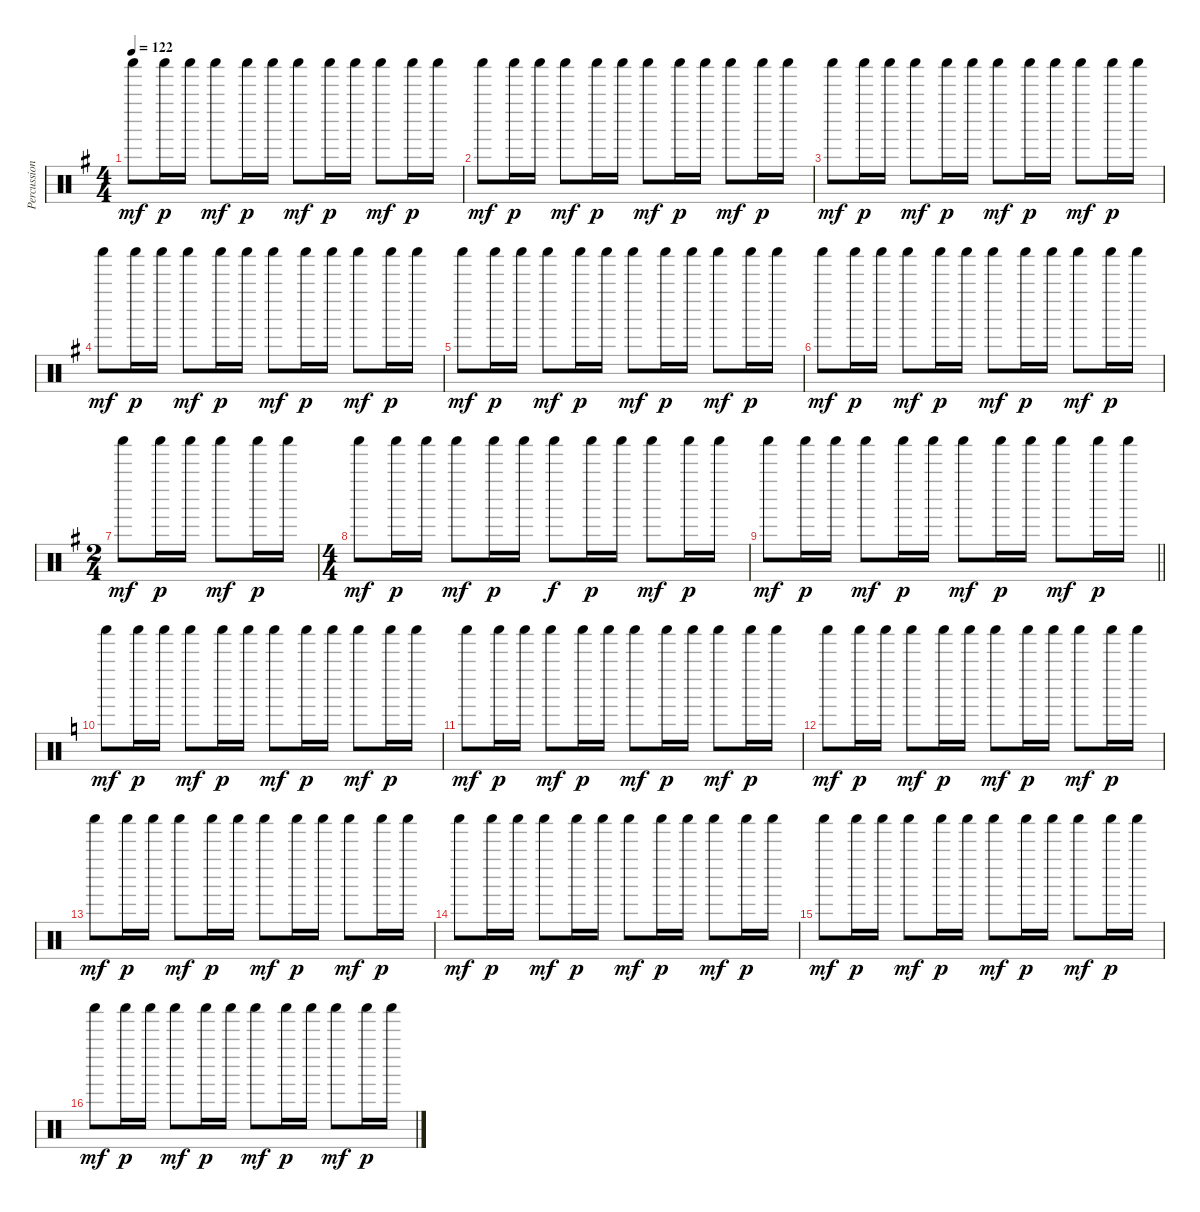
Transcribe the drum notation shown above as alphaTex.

\track ("Percussion" "Percussion") {instrument percussion}
\staff {score}
\articulation defaults
\ts (4 4)
\tempo 122
\clef neutral
\ks g "Shaker (hit)".8{dy mf} "Shaker (hit)".16{dy p} "Shaker (hit)".16 "Shaker (hit)".8{dy mf} "Shaker (hit)".16{dy p} "Shaker (hit)".16 "Shaker (hit)".8{dy mf} "Shaker (hit)".16{dy p} "Shaker (hit)".16 "Shaker (hit)".8{dy mf} "Shaker (hit)".16{dy p} "Shaker (hit)".16
|
"Shaker (hit)".8{dy mf} "Shaker (hit)".16{dy p} "Shaker (hit)".16 "Shaker (hit)".8{dy mf} "Shaker (hit)".16{dy p} "Shaker (hit)".16 "Shaker (hit)".8{dy mf} "Shaker (hit)".16{dy p} "Shaker (hit)".16 "Shaker (hit)".8{dy mf} "Shaker (hit)".16{dy p} "Shaker (hit)".16 |
"Shaker (hit)".8{dy mf} "Shaker (hit)".16{dy p} "Shaker (hit)".16 "Shaker (hit)".8{dy mf} "Shaker (hit)".16{dy p} "Shaker (hit)".16 "Shaker (hit)".8{dy mf} "Shaker (hit)".16{dy p} "Shaker (hit)".16 "Shaker (hit)".8{dy mf} "Shaker (hit)".16{dy p} "Shaker (hit)".16 |
"Shaker (hit)".8{dy mf} "Shaker (hit)".16{dy p} "Shaker (hit)".16 "Shaker (hit)".8{dy mf} "Shaker (hit)".16{dy p} "Shaker (hit)".16 "Shaker (hit)".8{dy mf} "Shaker (hit)".16{dy p} "Shaker (hit)".16 "Shaker (hit)".8{dy mf} "Shaker (hit)".16{dy p} "Shaker (hit)".16 |
"Shaker (hit)".8{dy mf} "Shaker (hit)".16{dy p} "Shaker (hit)".16 "Shaker (hit)".8{dy mf} "Shaker (hit)".16{dy p} "Shaker (hit)".16 "Shaker (hit)".8{dy mf} "Shaker (hit)".16{dy p} "Shaker (hit)".16 "Shaker (hit)".8{dy mf} "Shaker (hit)".16{dy p} "Shaker (hit)".16 |
"Shaker (hit)".8{dy mf} "Shaker (hit)".16{dy p} "Shaker (hit)".16 "Shaker (hit)".8{dy mf} "Shaker (hit)".16{dy p} "Shaker (hit)".16 "Shaker (hit)".8{dy mf} "Shaker (hit)".16{dy p} "Shaker (hit)".16 "Shaker (hit)".8{dy mf} "Shaker (hit)".16{dy p} "Shaker (hit)".16 |
\ts (2 4)
"Shaker (hit)".8{dy mf} "Shaker (hit)".16{dy p} "Shaker (hit)".16 "Shaker (hit)".8{dy mf} "Shaker (hit)".16{dy p} "Shaker (hit)".16 |
\ts (4 4)
"Shaker (hit)".8{dy mf} "Shaker (hit)".16{dy p} "Shaker (hit)".16 "Shaker (hit)".8{dy mf} "Shaker (hit)".16{dy p} "Shaker (hit)".16 "Shaker (hit)".8{dy f} "Shaker (hit)".16{dy p} "Shaker (hit)".16 "Shaker (hit)".8{dy mf} "Shaker (hit)".16{dy p} "Shaker (hit)".16 |
\barLineRight lightlight "Shaker (hit)".8{dy mf} "Shaker (hit)".16{dy p} "Shaker (hit)".16 "Shaker (hit)".8{dy mf} "Shaker (hit)".16{dy p} "Shaker (hit)".16 "Shaker (hit)".8{dy mf} "Shaker (hit)".16{dy p} "Shaker (hit)".16 "Shaker (hit)".8{dy mf} "Shaker (hit)".16{dy p} "Shaker (hit)".16
|
\ks c "Shaker (hit)".8{dy mf} "Shaker (hit)".16{dy p} "Shaker (hit)".16 "Shaker (hit)".8{dy mf} "Shaker (hit)".16{dy p} "Shaker (hit)".16 "Shaker (hit)".8{dy mf} "Shaker (hit)".16{dy p} "Shaker (hit)".16 "Shaker (hit)".8{dy mf} "Shaker (hit)".16{dy p} "Shaker (hit)".16
|
"Shaker (hit)".8{dy mf} "Shaker (hit)".16{dy p} "Shaker (hit)".16 "Shaker (hit)".8{dy mf} "Shaker (hit)".16{dy p} "Shaker (hit)".16 "Shaker (hit)".8{dy mf} "Shaker (hit)".16{dy p} "Shaker (hit)".16 "Shaker (hit)".8{dy mf} "Shaker (hit)".16{dy p} "Shaker (hit)".16 |
"Shaker (hit)".8{dy mf} "Shaker (hit)".16{dy p} "Shaker (hit)".16 "Shaker (hit)".8{dy mf} "Shaker (hit)".16{dy p} "Shaker (hit)".16 "Shaker (hit)".8{dy mf} "Shaker (hit)".16{dy p} "Shaker (hit)".16 "Shaker (hit)".8{dy mf} "Shaker (hit)".16{dy p} "Shaker (hit)".16 |
"Shaker (hit)".8{dy mf} "Shaker (hit)".16{dy p} "Shaker (hit)".16 "Shaker (hit)".8{dy mf} "Shaker (hit)".16{dy p} "Shaker (hit)".16 "Shaker (hit)".8{dy mf} "Shaker (hit)".16{dy p} "Shaker (hit)".16 "Shaker (hit)".8{dy mf} "Shaker (hit)".16{dy p} "Shaker (hit)".16 |
"Shaker (hit)".8{dy mf} "Shaker (hit)".16{dy p} "Shaker (hit)".16 "Shaker (hit)".8{dy mf} "Shaker (hit)".16{dy p} "Shaker (hit)".16 "Shaker (hit)".8{dy mf} "Shaker (hit)".16{dy p} "Shaker (hit)".16 "Shaker (hit)".8{dy mf} "Shaker (hit)".16{dy p} "Shaker (hit)".16 |
"Shaker (hit)".8{dy mf} "Shaker (hit)".16{dy p} "Shaker (hit)".16 "Shaker (hit)".8{dy mf} "Shaker (hit)".16{dy p} "Shaker (hit)".16 "Shaker (hit)".8{dy mf} "Shaker (hit)".16{dy p} "Shaker (hit)".16 "Shaker (hit)".8{dy mf} "Shaker (hit)".16{dy p} "Shaker (hit)".16 |
"Shaker (hit)".8{dy mf} "Shaker (hit)".16{dy p} "Shaker (hit)".16 "Shaker (hit)".8{dy mf} "Shaker (hit)".16{dy p} "Shaker (hit)".16 "Shaker (hit)".8{dy mf} "Shaker (hit)".16{dy p} "Shaker (hit)".16 "Shaker (hit)".8{dy mf} "Shaker (hit)".16{dy p} "Shaker (hit)".16
